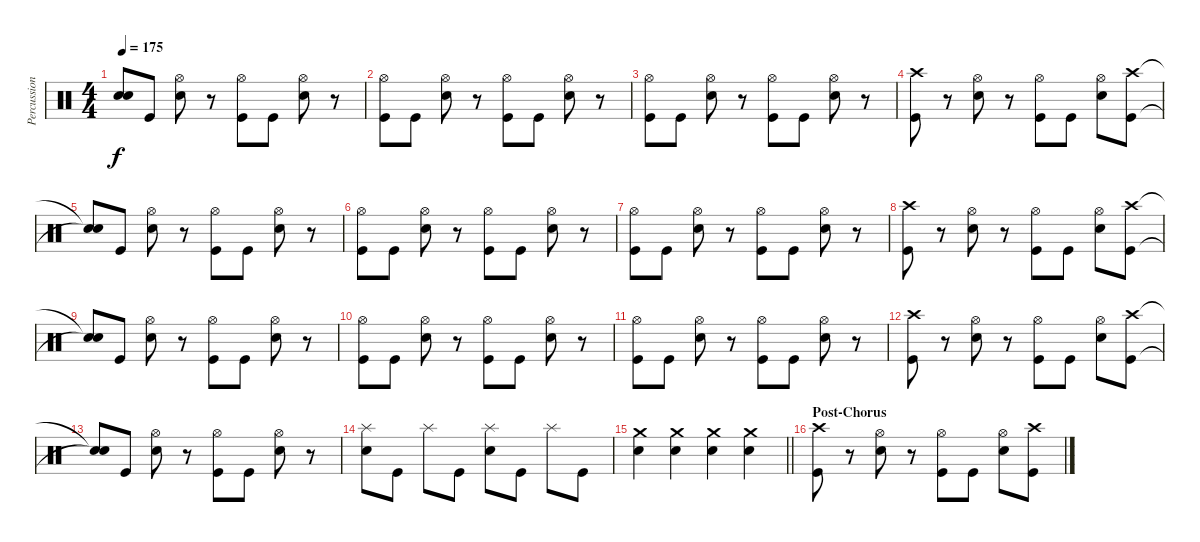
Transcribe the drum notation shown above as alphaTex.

\track ("Percussion" "Percussion") {instrument percussion}
\staff {score}
\articulation defaults
\ts (4 4)
\tempo 175
\clef neutral
\ks c
("Snare (hit)"{t} "Snare (hit)"{t}).8{dy f} "Kick (hit)".8 ("Hi-Hat (open)" "Snare (hit) 2").8 r.8 ("Hi-Hat (open)" "Kick (hit)").8 "Kick (hit)".8 ("Hi-Hat (open)" "Snare (hit) 2").8 r.8 |
("Hi-Hat (open)" "Kick (hit)").8 "Kick (hit)".8 ("Hi-Hat (open)" "Snare (hit) 2").8 r.8 ("Hi-Hat (open)" "Kick (hit)").8 "Kick (hit)".8 ("Hi-Hat (open)" "Snare (hit) 2").8 r.8 |
("Hi-Hat (open)" "Kick (hit)").8 "Kick (hit)".8 ("Hi-Hat (open)" "Snare (hit) 2").8 r.8 ("Hi-Hat (open)" "Kick (hit)").8 "Kick (hit)".8 ("Hi-Hat (open)" "Snare (hit) 2").8 r.8 |
("Crash high (hit)" "Kick (hit)").8 r.8 ("Hi-Hat (open)" "Snare (hit) 2").8 r.8 ("Hi-Hat (open)" "Kick (hit)").8 "Kick (hit)".8 ("Hi-Hat (open)" "Snare (hit) 2").8 ("Crash high (hit)" "Kick (hit)").8 |
("Snare (hit)"{t} "Snare (hit)"{t}).8 "Kick (hit)".8 ("Hi-Hat (open)" "Snare (hit) 2").8 r.8 ("Hi-Hat (open)" "Kick (hit)").8 "Kick (hit)".8 ("Hi-Hat (open)" "Snare (hit) 2").8 r.8 |
("Hi-Hat (open)" "Kick (hit)").8 "Kick (hit)".8 ("Hi-Hat (open)" "Snare (hit) 2").8 r.8 ("Hi-Hat (open)" "Kick (hit)").8 "Kick (hit)".8 ("Hi-Hat (open)" "Snare (hit) 2").8 r.8 |
("Hi-Hat (open)" "Kick (hit)").8 "Kick (hit)".8 ("Hi-Hat (open)" "Snare (hit) 2").8 r.8 ("Hi-Hat (open)" "Kick (hit)").8 "Kick (hit)".8 ("Hi-Hat (open)" "Snare (hit) 2").8 r.8 |
("Crash high (hit)" "Kick (hit)").8 r.8 ("Hi-Hat (open)" "Snare (hit) 2").8 r.8 ("Hi-Hat (open)" "Kick (hit)").8 "Kick (hit)".8 ("Hi-Hat (open)" "Snare (hit) 2").8 ("Crash high (hit)" "Kick (hit)").8 |
("Snare (hit)"{t} "Snare (hit)"{t}).8 "Kick (hit)".8 ("Hi-Hat (open)" "Snare (hit) 2").8 r.8 ("Hi-Hat (open)" "Kick (hit)").8 "Kick (hit)".8 ("Hi-Hat (open)" "Snare (hit) 2").8 r.8 |
("Hi-Hat (open)" "Kick (hit)").8 "Kick (hit)".8 ("Hi-Hat (open)" "Snare (hit) 2").8 r.8 ("Hi-Hat (open)" "Kick (hit)").8 "Kick (hit)".8 ("Hi-Hat (open)" "Snare (hit) 2").8 r.8 |
("Hi-Hat (open)" "Kick (hit)").8 "Kick (hit)".8 ("Hi-Hat (open)" "Snare (hit) 2").8 r.8 ("Hi-Hat (open)" "Kick (hit)").8 "Kick (hit)".8 ("Hi-Hat (open)" "Snare (hit) 2").8 r.8 |
("Crash high (hit)" "Kick (hit)").8 r.8 ("Hi-Hat (open)" "Snare (hit) 2").8 r.8 ("Hi-Hat (open)" "Kick (hit)").8 "Kick (hit)".8 ("Hi-Hat (open)" "Snare (hit) 2").8 ("Crash high (hit)" "Kick (hit)").8 |
("Snare (hit)"{t} "Snare (hit)"{t}).8 "Kick (hit)".8 ("Hi-Hat (open)" "Snare (hit) 2").8 r.8 ("Hi-Hat (open)" "Kick (hit)").8 "Kick (hit)".8 ("Hi-Hat (open)" "Snare (hit) 2").8 r.8 |
("Splash (hit)" "Snare (hit) 2").8 "Kick (hit)".8 "Splash (hit)".8 "Kick (hit)".8 ("Splash (hit)" "Snare (hit) 2").8 "Kick (hit)".8 "Splash (hit)".8 "Kick (hit)".8 |
\barLineRight lightlight
("Crash medium (hit)" "Snare (hit) 2").4 ("Crash medium (hit)" "Snare (hit) 2").4 ("Crash medium (hit)" "Snare (hit) 2").4 ("Crash medium (hit)" "Snare (hit) 2").4 |
\section ("" "Post-Chorus")
("Crash high (hit)" "Kick (hit)").8 r.8 ("Hi-Hat (open)" "Snare (hit) 2").8 r.8 ("Hi-Hat (open)" "Kick (hit)").8 "Kick (hit)".8 ("Hi-Hat (open)" "Snare (hit) 2").8 ("Crash high (hit)" "Kick (hit)").8
